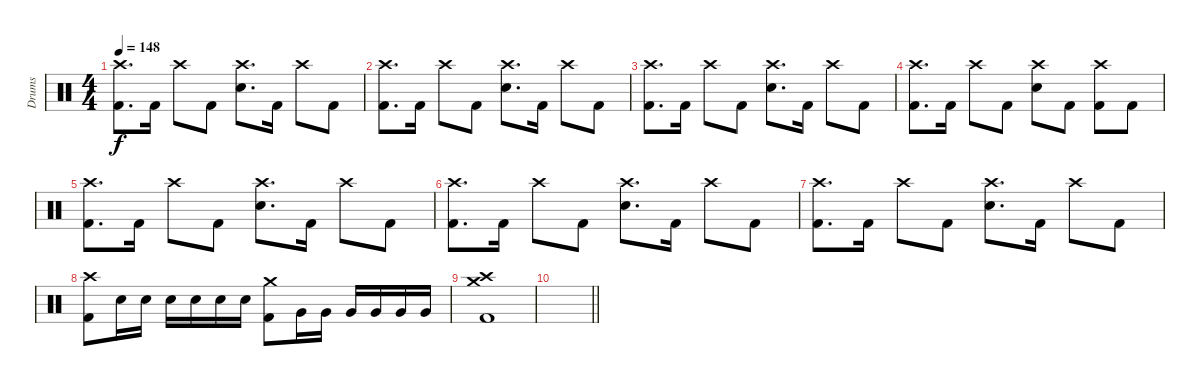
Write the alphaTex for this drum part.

\track ("Drums" "Drums") {instrument percussion}
\staff {score}
\articulation defaults
\ts (4 4)
\section ("" "")
\tempo 148
\clef neutral
\ks c
("Crash high (hit)" "Kick (hit) 2").8{d dy f} "Kick (hit) 2".16 "Crash high (hit)".8 "Kick (hit) 2".8 ("Crash high (hit)" "Snare (hit) 2").8{d} "Kick (hit) 2".16 "Crash high (hit)".8 "Kick (hit) 2".8 |
("Crash high (hit)" "Kick (hit) 2").8{d} "Kick (hit) 2".16 "Crash high (hit)".8 "Kick (hit) 2".8 ("Crash high (hit)" "Snare (hit) 2").8{d} "Kick (hit) 2".16 "Crash high (hit)".8 "Kick (hit) 2".8 |
("Crash high (hit)" "Kick (hit) 2").8{d} "Kick (hit) 2".16 "Crash high (hit)".8 "Kick (hit) 2".8 ("Crash high (hit)" "Snare (hit) 2").8{d} "Kick (hit) 2".16 "Crash high (hit)".8 "Kick (hit) 2".8 |
("Crash high (hit)" "Kick (hit) 2").8{d} "Kick (hit) 2".16 "Crash high (hit)".8 "Kick (hit) 2".8 ("Crash high (hit)" "Snare (hit) 2").8 "Kick (hit) 2".8 ("Crash high (hit)" "Kick (hit) 2").8 "Kick (hit) 2".8 |
("Crash high (hit)" "Kick (hit) 2").8{d} "Kick (hit) 2".16 "Crash high (hit)".8 "Kick (hit) 2".8 ("Crash high (hit)" "Snare (hit) 2").8{d} "Kick (hit) 2".16 "Crash high (hit)".8 "Kick (hit) 2".8 |
("Crash high (hit)" "Kick (hit) 2").8{d} "Kick (hit) 2".16 "Crash high (hit)".8 "Kick (hit) 2".8 ("Crash high (hit)" "Snare (hit) 2").8{d} "Kick (hit) 2".16 "Crash high (hit)".8 "Kick (hit) 2".8 |
("Crash high (hit)" "Kick (hit) 2").8{d} "Kick (hit) 2".16 "Crash high (hit)".8 "Kick (hit) 2".8 ("Crash high (hit)" "Snare (hit) 2").8{d} "Kick (hit) 2".16 "Crash high (hit)".8 "Kick (hit) 2".8 |
("Crash high (hit)" "Kick (hit) 2").8 "Snare (hit) 2".16 "Snare (hit) 2".16 "Snare (hit) 2".16 "Snare (hit) 2".16 "Snare (hit) 2".16 "Snare (hit) 2".16 ("Crash medium (hit)" "Kick (hit) 2").8 "Very Low Tom (hit)".16 "Very Low Tom (hit)".16 "Very Low Tom (hit)".16 "Very Low Tom (hit)".16 "Very Low Tom (hit)".16 "Very Low Tom (hit)".16 |
("Crash medium (hit)" "Crash high (hit)" "Kick (hit) 2").1 |
\barLineRight lightlight
